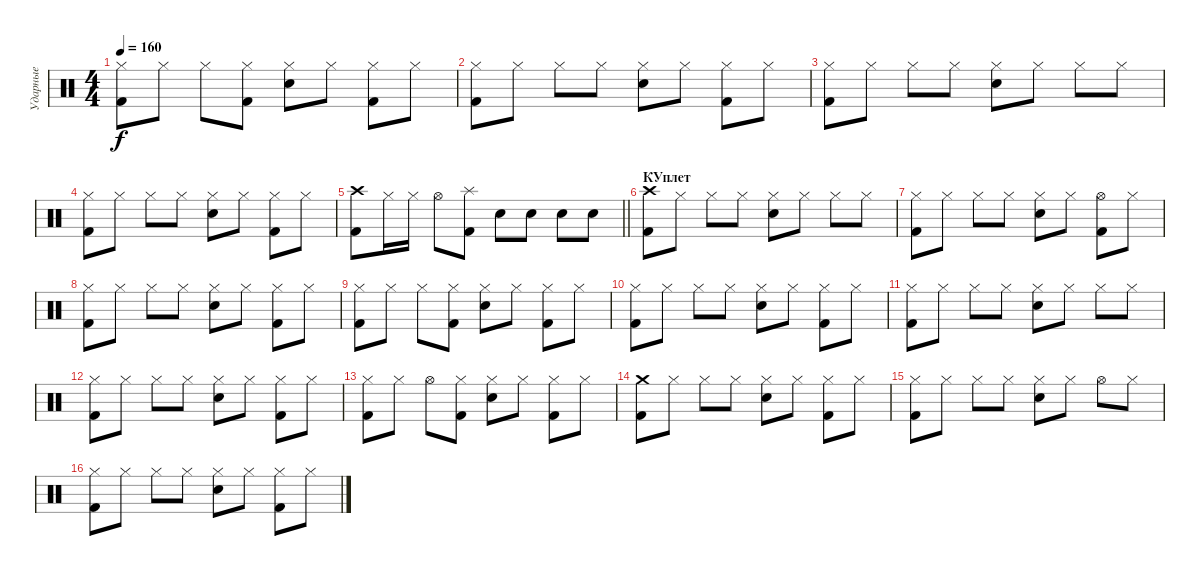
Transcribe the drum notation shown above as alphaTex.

\track ("Ударные" "Ударные") {instrument percussion}
\staff {score}
\articulation defaults
\ts (4 4)
\tempo 160
\clef neutral
\ks c
("Kick (hit) 2" "Hi-Hat (closed)").8{dy f} "Hi-Hat (closed)".8 "Hi-Hat (closed)".8 ("Kick (hit) 2" "Hi-Hat (closed)").8 ("Electric Snare (hit)" "Hi-Hat (closed)").8 "Hi-Hat (closed)".8 ("Kick (hit) 2" "Hi-Hat (closed)").8 "Hi-Hat (closed)".8 |
("Kick (hit) 2" "Hi-Hat (closed)").8 "Hi-Hat (closed)".8 "Hi-Hat (closed)".8 "Hi-Hat (closed)".8 ("Electric Snare (hit)" "Hi-Hat (closed)").8 "Hi-Hat (closed)".8 ("Kick (hit) 2" "Hi-Hat (closed)").8 "Hi-Hat (closed)".8 |
("Kick (hit) 2" "Hi-Hat (closed)").8 "Hi-Hat (closed)".8 "Hi-Hat (closed)".8 "Hi-Hat (closed)".8 ("Electric Snare (hit)" "Hi-Hat (closed)").8 "Hi-Hat (closed)".8 "Hi-Hat (closed)".8 "Hi-Hat (closed)".8 |
("Kick (hit) 2" "Hi-Hat (closed)").8 "Hi-Hat (closed)".8 "Hi-Hat (closed)".8 "Hi-Hat (closed)".8 ("Electric Snare (hit)" "Hi-Hat (closed)").8 "Hi-Hat (closed)".8 ("Kick (hit) 2" "Hi-Hat (closed)").8 "Hi-Hat (closed)".8 |
\barLineRight lightlight
("Kick (hit) 2" "Crash high (hit)").8 "Hi-Hat (closed)".16 "Hi-Hat (closed)".16 "Hi-Hat (open)".8 ("Kick (hit) 2" "Splash (hit)").8 "Electric Snare (hit)".8 "Electric Snare (hit)".8 "Electric Snare (hit)".8 "Electric Snare (hit)".8 |
\section ("" "КУплет")
("Kick (hit) 2" "Crash high (hit)").8 "Hi-Hat (closed)".8 "Hi-Hat (closed)".8 "Hi-Hat (closed)".8 ("Electric Snare (hit)" "Hi-Hat (closed)").8 "Hi-Hat (closed)".8 "Hi-Hat (closed)".8 "Hi-Hat (closed)".8 |
("Kick (hit) 2" "Hi-Hat (closed)").8 "Hi-Hat (closed)".8 "Hi-Hat (closed)".8 "Hi-Hat (closed)".8 ("Electric Snare (hit)" "Hi-Hat (closed)").8 "Hi-Hat (closed)".8 ("Kick (hit) 2" "Hi-Hat (open)").8 "Hi-Hat (closed)".8 |
("Kick (hit) 2" "Hi-Hat (closed)").8 "Hi-Hat (closed)".8 "Hi-Hat (closed)".8 "Hi-Hat (closed)".8 ("Electric Snare (hit)" "Hi-Hat (closed)").8 "Hi-Hat (closed)".8 ("Kick (hit) 2" "Hi-Hat (closed)").8 "Hi-Hat (closed)".8 |
("Kick (hit) 2" "Hi-Hat (closed)").8 "Hi-Hat (closed)".8 "Hi-Hat (closed)".8 ("Kick (hit) 2" "Hi-Hat (closed)").8 ("Electric Snare (hit)" "Hi-Hat (closed)").8 "Hi-Hat (closed)".8 ("Kick (hit) 2" "Hi-Hat (closed)").8 "Hi-Hat (closed)".8 |
("Kick (hit) 2" "Hi-Hat (closed)").8 "Hi-Hat (closed)".8 "Hi-Hat (closed)".8 "Hi-Hat (closed)".8 ("Electric Snare (hit)" "Hi-Hat (closed)").8 "Hi-Hat (closed)".8 ("Kick (hit) 2" "Hi-Hat (closed)").8 "Hi-Hat (closed)".8 |
("Kick (hit) 2" "Hi-Hat (closed)").8 "Hi-Hat (closed)".8 "Hi-Hat (closed)".8 "Hi-Hat (closed)".8 ("Electric Snare (hit)" "Hi-Hat (closed)").8 "Hi-Hat (closed)".8 "Hi-Hat (closed)".8 "Hi-Hat (closed)".8 |
("Kick (hit) 2" "Hi-Hat (closed)").8 "Hi-Hat (closed)".8 "Hi-Hat (closed)".8 "Hi-Hat (closed)".8 ("Electric Snare (hit)" "Hi-Hat (closed)").8 "Hi-Hat (closed)".8 ("Kick (hit) 2" "Hi-Hat (closed)").8 "Hi-Hat (closed)".8 |
("Kick (hit) 2" "Hi-Hat (closed)").8 "Hi-Hat (closed)".8 "Hi-Hat (open)".8 ("Kick (hit) 2" "Hi-Hat (closed)").8 ("Electric Snare (hit)" "Hi-Hat (closed)").8 "Hi-Hat (closed)".8 ("Kick (hit) 2" "Hi-Hat (closed)").8 "Hi-Hat (closed)".8 |
("Kick (hit) 2" "Crash medium (hit)").8 "Hi-Hat (closed)".8 "Hi-Hat (closed)".8 "Hi-Hat (closed)".8 ("Electric Snare (hit)" "Hi-Hat (closed)").8 "Hi-Hat (closed)".8 ("Kick (hit) 2" "Hi-Hat (closed)").8 "Hi-Hat (closed)".8 |
("Kick (hit) 2" "Hi-Hat (closed)").8 "Hi-Hat (closed)".8 "Hi-Hat (closed)".8 "Hi-Hat (closed)".8 ("Electric Snare (hit)" "Hi-Hat (closed)").8 "Hi-Hat (closed)".8 "Hi-Hat (open)".8 "Hi-Hat (closed)".8 |
("Kick (hit) 2" "Hi-Hat (closed)").8 "Hi-Hat (closed)".8 "Hi-Hat (closed)".8 "Hi-Hat (closed)".8 ("Electric Snare (hit)" "Hi-Hat (closed)").8 "Hi-Hat (closed)".8 ("Kick (hit) 2" "Hi-Hat (closed)").8 "Hi-Hat (closed)".8
